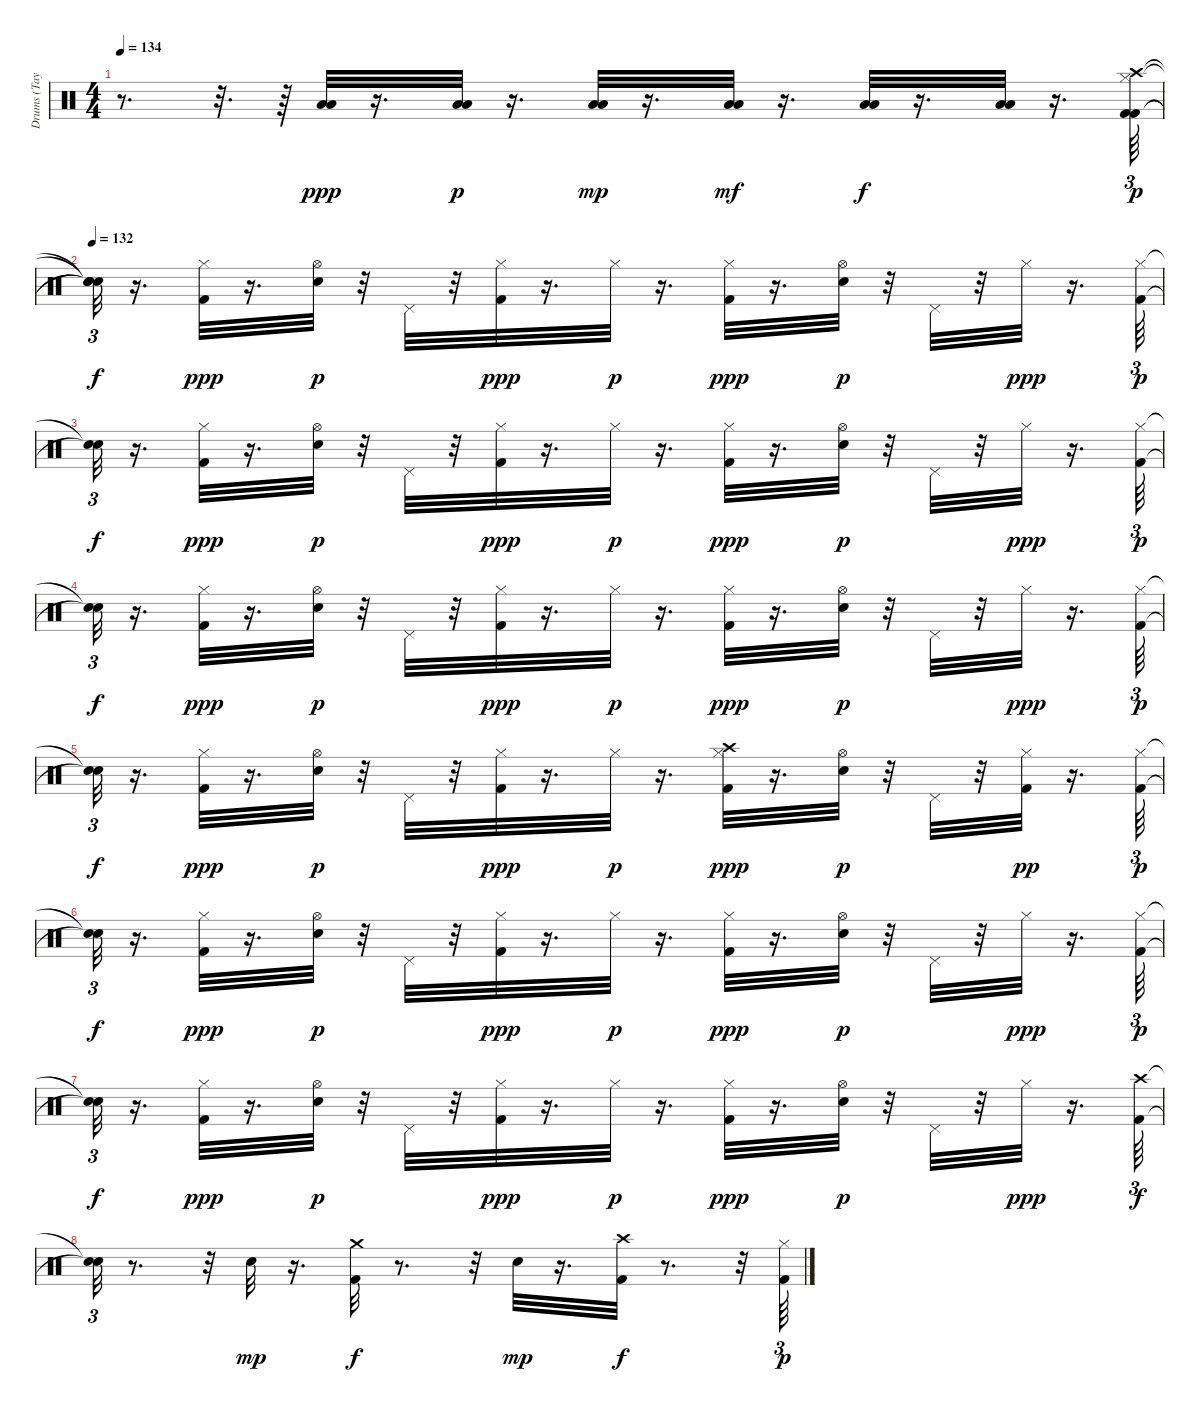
\track ("Drums (Taylor)" "Drums (Tay") {instrument percussion}
\staff {score}
\articulation defaults
\ts (4 4)
\tempo 134
\clef neutral
\ks c
r.8{d dy f} r.32{d} r.64 ("Low Floor Tom (hit)" "Low Tom (hit)").32{dy ppp} r.16{d} ("Low Floor Tom (hit)" "Low Tom (hit)").32{dy p} r.16{d} ("Low Floor Tom (hit)" "Low Tom (hit)").32{dy mp} r.16{d} ("Low Floor Tom (hit)" "Low Tom (hit)").32{dy mf} r.16{d} ("Low Floor Tom (hit)" "Low Tom (hit)").32{dy f} r.16{d} ("Low Floor Tom (hit)" "Low Tom (hit)").32 r.16{d} ("Crash high (hit)" "Kick (hit) 2" "Kick (hit) 2" "Hi-Hat (closed)").64{tu (3 2) dy p} |
\tempo 132
("Snare (hit)"{t} "Snare (hit)"{t} "Snare (hit)"{t} "Snare (hit)"{t}).32{tu (3 2) dy f} r.16{d} ("Kick (hit) 2" "Hi-Hat (closed)").32{dy ppp} r.16{d} ("Snare (hit) 2" "Hi-Hat (open)").32{dy p} r.32 "Pedal Hi-Hat (hit)".32 r.32 ("Kick (hit) 2" "Hi-Hat (closed)").32{dy ppp} r.16{d} "Hi-Hat (closed)".32{dy p} r.16{d} ("Kick (hit) 2" "Hi-Hat (closed)").32{dy ppp} r.16{d} ("Snare (hit) 2" "Hi-Hat (open)").32{dy p} r.32 "Pedal Hi-Hat (hit)".32 r.32 "Hi-Hat (closed)".32{dy ppp} r.16{d} ("Kick (hit) 2" "Hi-Hat (closed)").64{tu (3 2) dy p} |
("Snare (hit)"{t} "Snare (hit)"{t}).32{tu (3 2) dy f} r.16{d} ("Kick (hit) 2" "Hi-Hat (closed)").32{dy ppp} r.16{d} ("Snare (hit) 2" "Hi-Hat (open)").32{dy p} r.32 "Pedal Hi-Hat (hit)".32 r.32 ("Kick (hit) 2" "Hi-Hat (closed)").32{dy ppp} r.16{d} "Hi-Hat (closed)".32{dy p} r.16{d} ("Kick (hit) 2" "Hi-Hat (closed)").32{dy ppp} r.16{d} ("Snare (hit) 2" "Hi-Hat (open)").32{dy p} r.32 "Pedal Hi-Hat (hit)".32 r.32 "Hi-Hat (closed)".32{dy ppp} r.16{d} ("Kick (hit) 2" "Hi-Hat (closed)").64{tu (3 2) dy p} |
("Snare (hit)"{t} "Snare (hit)"{t}).32{tu (3 2) dy f} r.16{d} ("Kick (hit) 2" "Hi-Hat (closed)").32{dy ppp} r.16{d} ("Snare (hit) 2" "Hi-Hat (open)").32{dy p} r.32 "Pedal Hi-Hat (hit)".32 r.32 ("Kick (hit) 2" "Hi-Hat (closed)").32{dy ppp} r.16{d} "Hi-Hat (closed)".32{dy p} r.16{d} ("Kick (hit) 2" "Hi-Hat (closed)").32{dy ppp} r.16{d} ("Snare (hit) 2" "Hi-Hat (open)").32{dy p} r.32 "Pedal Hi-Hat (hit)".32 r.32 "Hi-Hat (closed)".32{dy ppp} r.16{d} ("Kick (hit) 2" "Hi-Hat (closed)").64{tu (3 2) dy p} |
("Snare (hit)"{t} "Snare (hit)"{t}).32{tu (3 2) dy f} r.16{d} ("Kick (hit) 2" "Hi-Hat (closed)").32{dy ppp} r.16{d} ("Snare (hit) 2" "Hi-Hat (open)").32{dy p} r.32 "Pedal Hi-Hat (hit)".32 r.32 ("Kick (hit) 2" "Hi-Hat (closed)").32{dy ppp} r.16{d} "Hi-Hat (closed)".32{dy p} r.16{d} ("Crash high (hit)" "Kick (hit) 2" "Hi-Hat (closed)").32{dy ppp} r.16{d} ("Snare (hit) 2" "Hi-Hat (open)").32{dy p} r.32 "Pedal Hi-Hat (hit)".32 r.32 ("Kick (hit) 2" "Hi-Hat (closed)").32{dy pp} r.16{d} ("Kick (hit) 2" "Hi-Hat (closed)").64{tu (3 2) dy p} |
("Snare (hit)"{t} "Snare (hit)"{t}).32{tu (3 2) dy f} r.16{d} ("Kick (hit) 2" "Hi-Hat (closed)").32{dy ppp} r.16{d} ("Snare (hit) 2" "Hi-Hat (open)").32{dy p} r.32 "Pedal Hi-Hat (hit)".32 r.32 ("Kick (hit) 2" "Hi-Hat (closed)").32{dy ppp} r.16{d} "Hi-Hat (closed)".32{dy p} r.16{d} ("Kick (hit) 2" "Hi-Hat (closed)").32{dy ppp} r.16{d} ("Snare (hit) 2" "Hi-Hat (open)").32{dy p} r.32 "Pedal Hi-Hat (hit)".32 r.32 "Hi-Hat (closed)".32{dy ppp} r.16{d} ("Kick (hit) 2" "Hi-Hat (closed)").64{tu (3 2) dy p} |
("Snare (hit)"{t} "Snare (hit)"{t}).32{tu (3 2) dy f} r.16{d} ("Kick (hit) 2" "Hi-Hat (closed)").32{dy ppp} r.16{d} ("Snare (hit) 2" "Hi-Hat (open)").32{dy p} r.32 "Pedal Hi-Hat (hit)".32 r.32 ("Kick (hit) 2" "Hi-Hat (closed)").32{dy ppp} r.16{d} "Hi-Hat (closed)".32{dy p} r.16{d} ("Kick (hit) 2" "Hi-Hat (closed)").32{dy ppp} r.16{d} ("Snare (hit) 2" "Hi-Hat (open)").32{dy p} r.32 "Pedal Hi-Hat (hit)".32 r.32 "Hi-Hat (closed)".32{dy ppp} r.16{d} ("Crash high (hit)" "Kick (hit) 2").64{tu (3 2) dy f} |
("Snare (hit)"{t} "Snare (hit)"{t}).32{tu (3 2)} r.8{d} r.32 "Snare (hit) 2".32{dy mp} r.16{d} ("Kick (hit) 2" "Crash medium (hit)").32{dy f} r.8{d} r.32 "Snare (hit) 2".32{dy mp} r.16{d} ("Crash high (hit)" "Kick (hit) 2").32{dy f} r.8{d} r.32 ("Kick (hit) 2" "Hi-Hat (closed)").64{tu (3 2) dy p}
